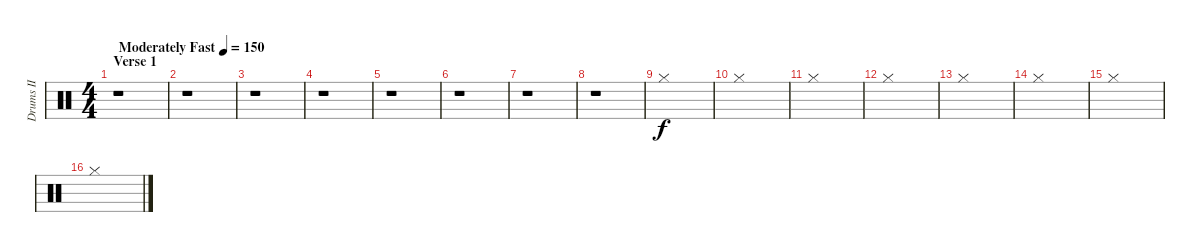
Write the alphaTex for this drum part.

\track ("Drums II" "Drums II") {instrument percussion}
\staff {score}
\articulation defaults
\ts (4 4)
\section ("" "Verse 1")
\tempo (150 "Moderately Fast")
\clef neutral
\ks c
r.1{dy f} |
r.1 |
r.1 |
r.1 |
r.1 |
r.1 |
r.1 |
r.1 |
"Hi-Hat (closed)".1 |
"Hi-Hat (closed)".1 |
"Hi-Hat (closed)".1 |
"Hi-Hat (closed)".1 |
"Hi-Hat (closed)".1 |
"Hi-Hat (closed)".1 |
"Hi-Hat (closed)".1 |
"Hi-Hat (closed)".1
